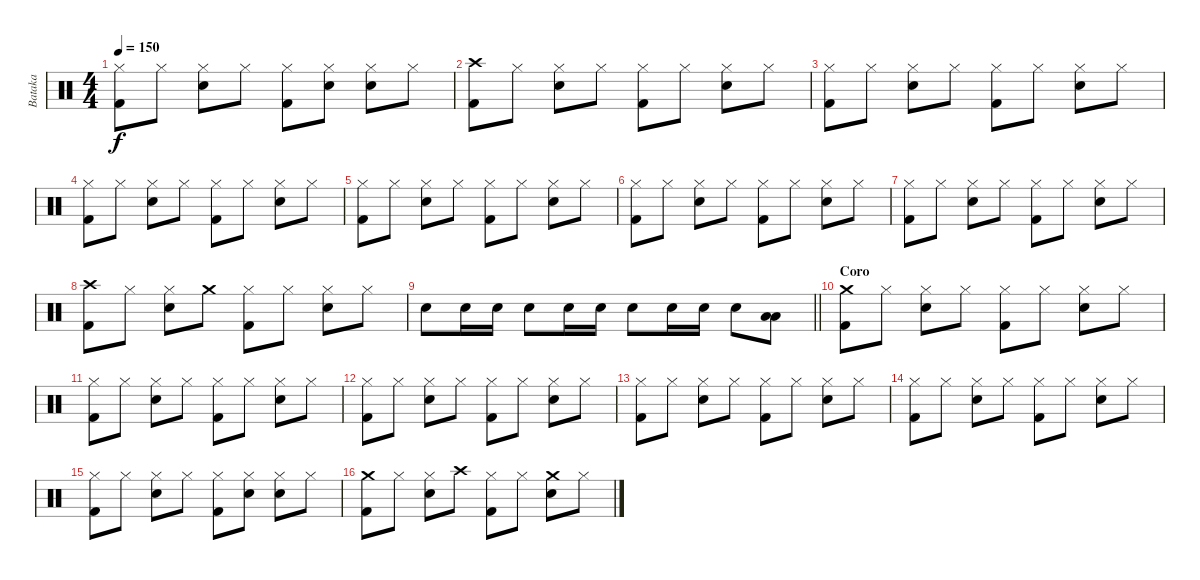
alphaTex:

\track ("Bataka" "Bataka") {instrument percussion}
\staff {score}
\articulation defaults
\ts (4 4)
\tempo 150
\clef neutral
\ks c
("Hi-Hat (closed)" "Kick (hit) 2").8{dy f} "Hi-Hat (closed)".8 ("Hi-Hat (closed)" "Snare (hit) 2").8 "Hi-Hat (closed)".8 ("Hi-Hat (closed)" "Kick (hit) 2").8 ("Hi-Hat (closed)" "Snare (hit) 2").8 ("Hi-Hat (closed)" "Snare (hit) 2").8 "Hi-Hat (closed)".8 |
("Crash high (hit)" "Kick (hit) 2").8 "Hi-Hat (closed)".8 ("Hi-Hat (closed)" "Snare (hit) 2").8 "Hi-Hat (closed)".8 ("Hi-Hat (closed)" "Kick (hit) 2").8 "Hi-Hat (closed)".8 ("Hi-Hat (closed)" "Snare (hit) 2").8 "Hi-Hat (closed)".8 |
("Hi-Hat (closed)" "Kick (hit) 2").8 "Hi-Hat (closed)".8 ("Hi-Hat (closed)" "Snare (hit) 2").8 "Hi-Hat (closed)".8 ("Hi-Hat (closed)" "Kick (hit) 2").8 "Hi-Hat (closed)".8 ("Hi-Hat (closed)" "Snare (hit) 2").8 "Hi-Hat (closed)".8 |
("Hi-Hat (closed)" "Kick (hit) 2").8 "Hi-Hat (closed)".8 ("Hi-Hat (closed)" "Snare (hit) 2").8 "Hi-Hat (closed)".8 ("Hi-Hat (closed)" "Kick (hit) 2").8 "Hi-Hat (closed)".8 ("Hi-Hat (closed)" "Snare (hit) 2").8 "Hi-Hat (closed)".8 |
("Hi-Hat (closed)" "Kick (hit) 2").8 "Hi-Hat (closed)".8 ("Hi-Hat (closed)" "Snare (hit) 2").8 "Hi-Hat (closed)".8 ("Hi-Hat (closed)" "Kick (hit) 2").8 "Hi-Hat (closed)".8 ("Hi-Hat (closed)" "Snare (hit) 2").8 "Hi-Hat (closed)".8 |
("Hi-Hat (closed)" "Kick (hit) 2").8 "Hi-Hat (closed)".8 ("Hi-Hat (closed)" "Snare (hit) 2").8 "Hi-Hat (closed)".8 ("Hi-Hat (closed)" "Kick (hit) 2").8 "Hi-Hat (closed)".8 ("Hi-Hat (closed)" "Snare (hit) 2").8 "Hi-Hat (closed)".8 |
("Hi-Hat (closed)" "Kick (hit) 2").8 "Hi-Hat (closed)".8 ("Hi-Hat (closed)" "Snare (hit) 2").8 "Hi-Hat (closed)".8 ("Hi-Hat (closed)" "Kick (hit) 2").8 "Hi-Hat (closed)".8 ("Hi-Hat (closed)" "Snare (hit) 2").8 "Hi-Hat (closed)".8 |
("Crash high (hit)" "Kick (hit) 2").8 "Hi-Hat (closed)".8 ("Hi-Hat (closed)" "Snare (hit) 2").8 "Crash medium (hit)".8 ("Hi-Hat (closed)" "Kick (hit) 2").8 "Hi-Hat (closed)".8 ("Hi-Hat (closed)" "Snare (hit) 2").8 "Hi-Hat (closed)".8 |
\barLineRight lightlight "Snare (hit) 2".8 "Snare (hit) 2".16 "Snare (hit) 2".16 "Snare (hit) 2".8 "Snare (hit) 2".16 "Snare (hit) 2".16 "Snare (hit) 2".8 "Snare (hit) 2".16 "Snare (hit) 2".16 "Snare (hit) 2".8
("Low Tom (hit)" "Low Tom (hit)").8 |
\section ("" "Coro")
("Crash medium (hit)" "Kick (hit) 2").8 "Hi-Hat (closed)".8 ("Hi-Hat (closed)" "Snare (hit) 2").8 "Hi-Hat (closed)".8 ("Hi-Hat (closed)" "Kick (hit) 2").8 "Hi-Hat (closed)".8 ("Hi-Hat (closed)" "Snare (hit) 2").8 "Hi-Hat (closed)".8 |
("Hi-Hat (closed)" "Kick (hit) 2").8 "Hi-Hat (closed)".8 ("Hi-Hat (closed)" "Snare (hit) 2").8 "Hi-Hat (closed)".8 ("Hi-Hat (closed)" "Kick (hit) 2").8 "Hi-Hat (closed)".8 ("Hi-Hat (closed)" "Snare (hit) 2").8 "Hi-Hat (closed)".8 |
("Hi-Hat (closed)" "Kick (hit) 2").8 "Hi-Hat (closed)".8 ("Hi-Hat (closed)" "Snare (hit) 2").8 "Hi-Hat (closed)".8 ("Hi-Hat (closed)" "Kick (hit) 2").8 "Hi-Hat (closed)".8 ("Hi-Hat (closed)" "Snare (hit) 2").8 "Hi-Hat (closed)".8 |
("Hi-Hat (closed)" "Kick (hit) 2").8 "Hi-Hat (closed)".8 ("Hi-Hat (closed)" "Snare (hit) 2").8 "Hi-Hat (closed)".8 ("Hi-Hat (closed)" "Kick (hit) 2").8 "Hi-Hat (closed)".8 ("Hi-Hat (closed)" "Snare (hit) 2").8 "Hi-Hat (closed)".8 |
("Hi-Hat (closed)" "Kick (hit) 2").8 "Hi-Hat (closed)".8 ("Hi-Hat (closed)" "Snare (hit) 2").8 "Hi-Hat (closed)".8 ("Hi-Hat (closed)" "Kick (hit) 2").8 "Hi-Hat (closed)".8 ("Hi-Hat (closed)" "Snare (hit) 2").8 "Hi-Hat (closed)".8 |
("Hi-Hat (closed)" "Kick (hit) 2").8 "Hi-Hat (closed)".8 ("Hi-Hat (closed)" "Snare (hit) 2").8 "Hi-Hat (closed)".8 ("Hi-Hat (closed)" "Kick (hit) 2").8 ("Hi-Hat (closed)" "Snare (hit) 2").8 ("Hi-Hat (closed)" "Snare (hit) 2").8 "Hi-Hat (closed)".8 |
("Crash medium (hit)" "Kick (hit) 2").8 "Hi-Hat (closed)".8 ("Hi-Hat (closed)" "Snare (hit) 2").8 "Crash high (hit)".8 ("Hi-Hat (closed)" "Kick (hit) 2").8 "Hi-Hat (closed)".8 ("Crash medium (hit)" "Snare (hit) 2").8 "Hi-Hat (closed)".8
